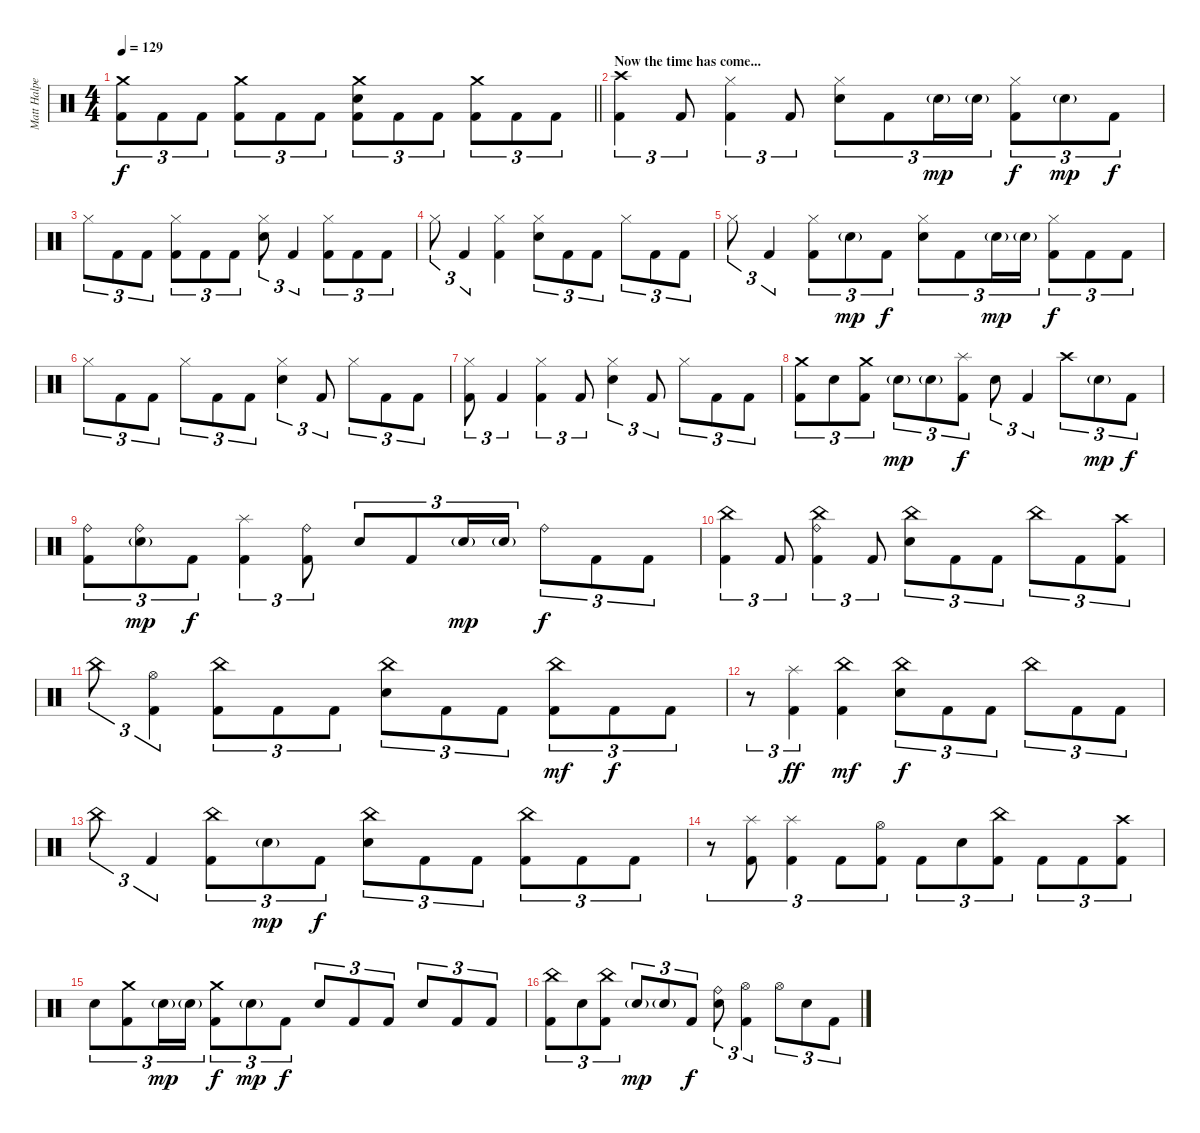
\track ("Matt Halpern - Drums" "Matt Halpe") {instrument percussion}
\staff {score}
\articulation defaults
\ts (4 4)
\tempo 129
\clef neutral
\barLineRight lightlight
\ks c
("Crash medium (hit)" "Kick (hit) 2").8{tu (3 2) dy f} "Kick (hit) 2".8{tu (3 2)} "Kick (hit) 2".8{tu (3 2)} ("Crash medium (hit)" "Kick (hit) 2").8{tu (3 2)} "Kick (hit) 2".8{tu (3 2)} "Kick (hit) 2".8{tu (3 2)} ("Crash medium (hit)" "Electric Snare (hit)" "Kick (hit) 2").8{tu (3 2)} "Kick (hit) 2".8{tu (3 2)} "Kick (hit) 2".8{tu (3 2)} ("Crash medium (hit)" "Kick (hit) 2").8{tu (3 2)} "Kick (hit) 2".8{tu (3 2)} "Kick (hit) 2".8{tu (3 2)} |
\section ("" "Now the time has come...")
("Crash high (hit)" "Kick (hit) 2").4{tu (3 2)} "Kick (hit) 2".8{tu (3 2)} ("Hi-Hat (closed)" "Kick (hit) 2").4{tu (3 2)} "Kick (hit) 2".8{tu (3 2)} ("Hi-Hat (closed)" "Electric Snare (hit)").8{tu (3 2)} "Kick (hit) 2".8{tu (3 2)} "Electric Snare (hit)"{g}.16{tu (3 2) dy mp} "Electric Snare (hit)"{g}.16{tu (3 2)} ("Hi-Hat (closed)" "Kick (hit) 2").8{tu (3 2) dy f} "Electric Snare (hit)"{g}.8{tu (3 2) dy mp} "Kick (hit) 2".8{tu (3 2) dy f} |
"Hi-Hat (closed)".8{tu (3 2)} "Kick (hit) 2".8{tu (3 2)} "Kick (hit) 2".8{tu (3 2)} ("Hi-Hat (closed)" "Kick (hit) 2").8{tu (3 2)} "Kick (hit) 2".8{tu (3 2)} "Kick (hit) 2".8{tu (3 2)} ("Hi-Hat (closed)" "Electric Snare (hit)").8{tu (3 2)} "Kick (hit) 2".4{tu (3 2)} ("Hi-Hat (closed)" "Kick (hit) 2").8{tu (3 2)} "Kick (hit) 2".8{tu (3 2)} "Kick (hit) 2".8{tu (3 2)} |
"Hi-Hat (closed)".8{tu (3 2)} "Kick (hit) 2".4{tu (3 2)} ("Hi-Hat (closed)" "Kick (hit) 2").4 ("Hi-Hat (closed)" "Electric Snare (hit)").8{tu (3 2)} "Kick (hit) 2".8{tu (3 2)} "Kick (hit) 2".8{tu (3 2)} "Hi-Hat (closed)".8{tu (3 2)} "Kick (hit) 2".8{tu (3 2)} "Kick (hit) 2".8{tu (3 2)} |
"Hi-Hat (closed)".8{tu (3 2)} "Kick (hit) 2".4{tu (3 2)} ("Hi-Hat (closed)" "Kick (hit) 2").8{tu (3 2)} "Electric Snare (hit)"{g}.8{tu (3 2) dy mp} "Kick (hit) 2".8{tu (3 2) dy f} ("Hi-Hat (closed)" "Electric Snare (hit)").8{tu (3 2)} "Kick (hit) 2".8{tu (3 2)} "Electric Snare (hit)"{g}.16{tu (3 2) dy mp} "Electric Snare (hit)"{g}.16{tu (3 2)} ("Hi-Hat (closed)" "Kick (hit) 2").8{tu (3 2) dy f} "Kick (hit) 2".8{tu (3 2)} "Kick (hit) 2".8{tu (3 2)} |
"Hi-Hat (closed)".8{tu (3 2)} "Kick (hit) 2".8{tu (3 2)} "Kick (hit) 2".8{tu (3 2)} "Hi-Hat (closed)".8{tu (3 2)} "Kick (hit) 2".8{tu (3 2)} "Kick (hit) 2".8{tu (3 2)} ("Hi-Hat (closed)" "Electric Snare (hit)").4{tu (3 2)} "Kick (hit) 2".8{tu (3 2)} "Hi-Hat (closed)".8{tu (3 2)} "Kick (hit) 2".8{tu (3 2)} "Kick (hit) 2".8{tu (3 2)} |
("Hi-Hat (closed)" "Kick (hit) 2").8{tu (3 2)} "Kick (hit) 2".4{tu (3 2)} ("Hi-Hat (closed)" "Kick (hit) 2").4{tu (3 2)} "Kick (hit) 2".8{tu (3 2)} ("Hi-Hat (closed)" "Electric Snare (hit)").4{tu (3 2)} "Kick (hit) 2".8{tu (3 2)} "Hi-Hat (closed)".8{tu (3 2)} "Kick (hit) 2".8{tu (3 2)} "Kick (hit) 2".8{tu (3 2)} |
("Crash medium (hit)" "Kick (hit) 2").8{tu (3 2)} "Electric Snare (hit)".8{tu (3 2)} ("Crash medium (hit)" "Kick (hit) 2").8{tu (3 2)} "Electric Snare (hit)"{g}.8{tu (3 2) dy mp} "Electric Snare (hit)"{g}.8{tu (3 2)} ("Splash (hit)" "Kick (hit) 2").8{tu (3 2) dy f} "Electric Snare (hit)".8{tu (3 2)} "Kick (hit) 2".4{tu (3 2)} "Crash high (hit)".8{tu (3 2)} "Electric Snare (hit)"{g}.8{tu (3 2) dy mp} "Kick (hit) 2".8{tu (3 2) dy f} |
("Ride (bell)" "Kick (hit) 2").8{tu (3 2)} ("Ride (bell)" "Electric Snare (hit)"{g}).8{tu (3 2) dy mp} "Kick (hit) 2".8{tu (3 2) dy f} ("Splash (hit)" "Kick (hit) 2").4{tu (3 2)} ("Ride (bell)" "Kick (hit) 2").8{tu (3 2)} "Electric Snare (hit)".8{tu (3 2)} "Kick (hit) 2".8{tu (3 2)} "Electric Snare (hit)"{g}.16{tu (3 2) dy mp} "Electric Snare (hit)"{g}.16{tu (3 2)} "Ride (bell)".8{tu (3 2) dy f} "Kick (hit) 2".8{tu (3 2)} "Kick (hit) 2".8{tu (3 2)} |
("China (hit)" "Kick (hit) 2").4{tu (3 2)} "Kick (hit) 2".8{tu (3 2)} ("China (hit)" "Ride (bell)" "Kick (hit) 2").4{tu (3 2)} "Kick (hit) 2".8{tu (3 2)} ("China (hit)" "Electric Snare (hit)").8{tu (3 2)} "Kick (hit) 2".8{tu (3 2)} "Kick (hit) 2".8{tu (3 2)} "China (hit)".8{tu (3 2)} "Kick (hit) 2".8{tu (3 2)} ("Crash high (hit)" "Kick (hit) 2").8{tu (3 2)} |
"China (hit)".8{tu (3 2)} ("Hi-Hat (open)" "Kick (hit) 2").4{tu (3 2)} ("China (hit)" "Kick (hit) 2").8{tu (3 2)} "Kick (hit) 2".8{tu (3 2)} "Kick (hit) 2".8{tu (3 2)} ("China (hit)" "Electric Snare (hit)").8{tu (3 2)} "Kick (hit) 2".8{tu (3 2)} "Kick (hit) 2".8{tu (3 2)} ("China (hit)" "Kick (hit) 2").8{tu (3 2) dy mf} "Kick (hit) 2".8{tu (3 2) dy f} "Kick (hit) 2".8{tu (3 2)} |
r.8{tu (3 2)} ("Splash (hit)" "Kick (hit) 2").4{tu (3 2) dy ff} ("China (hit)" "Kick (hit) 2").4{dy mf} ("China (hit)" "Electric Snare (hit)").8{tu (3 2) dy f} "Kick (hit) 2".8{tu (3 2)} "Kick (hit) 2".8{tu (3 2)} "China (hit)".8{tu (3 2)} "Kick (hit) 2".8{tu (3 2)} "Kick (hit) 2".8{tu (3 2)} |
"China (hit)".8{tu (3 2)} "Kick (hit) 2".4{tu (3 2)} ("China (hit)" "Kick (hit) 2").8{tu (3 2)} "Electric Snare (hit)"{g}.8{tu (3 2) dy mp} "Kick (hit) 2".8{tu (3 2) dy f} ("China (hit)" "Electric Snare (hit)").8{tu (3 2)} "Kick (hit) 2".8{tu (3 2)} "Kick (hit) 2".8{tu (3 2)} ("China (hit)" "Kick (hit) 2").8{tu (3 2)} "Kick (hit) 2".8{tu (3 2)} "Kick (hit) 2".8{tu (3 2)} |
r.8{tu (3 2)} ("Splash (hit)" "Kick (hit) 2").8{tu (3 2)} ("Splash (hit)" "Kick (hit) 2").4{tu (3 2)} "Kick (hit) 2".8{tu (3 2)} ("Hi-Hat (open)" "Kick (hit) 2").8{tu (3 2)} "Kick (hit) 2".8{tu (3 2)} "Electric Snare (hit)".8{tu (3 2)} ("China (hit)" "Kick (hit) 2").8{tu (3 2)} "Kick (hit) 2".8{tu (3 2)} "Kick (hit) 2".8{tu (3 2)} ("Crash high (hit)" "Kick (hit) 2").8{tu (3 2)} |
"Electric Snare (hit)".8{tu (3 2)} ("Crash medium (hit)" "Kick (hit) 2").8{tu (3 2)} "Electric Snare (hit)"{g}.16{tu (3 2) dy mp} "Electric Snare (hit)"{g}.16{tu (3 2)} ("Crash medium (hit)" "Kick (hit) 2").8{tu (3 2) dy f} "Electric Snare (hit)"{g}.8{tu (3 2) dy mp} "Kick (hit) 2".8{tu (3 2) dy f} "Electric Snare (hit)".8{tu (3 2)} "Kick (hit) 2".8{tu (3 2)} "Kick (hit) 2".8{tu (3 2)} "Electric Snare (hit)".8{tu (3 2)} "Kick (hit) 2".8{tu (3 2)} "Kick (hit) 2".8{tu (3 2)} |
("China (hit)" "Kick (hit) 2").8{tu (3 2)} "Electric Snare (hit)".8{tu (3 2)} ("China (hit)" "Kick (hit) 2").8{tu (3 2)} "Electric Snare (hit)"{g}.8{tu (3 2) dy mp} "Electric Snare (hit)"{g}.8{tu (3 2)} "Kick (hit) 2".8{tu (3 2) dy f} ("Ride (bell)" "Electric Snare (hit)").8{tu (3 2)} ("Hi-Hat (open)" "Kick (hit) 2").4{tu (3 2)} "Hi-Hat (open)".8{tu (3 2)} "Electric Snare (hit)".8{tu (3 2)} "Kick (hit) 2".8{tu (3 2)}
